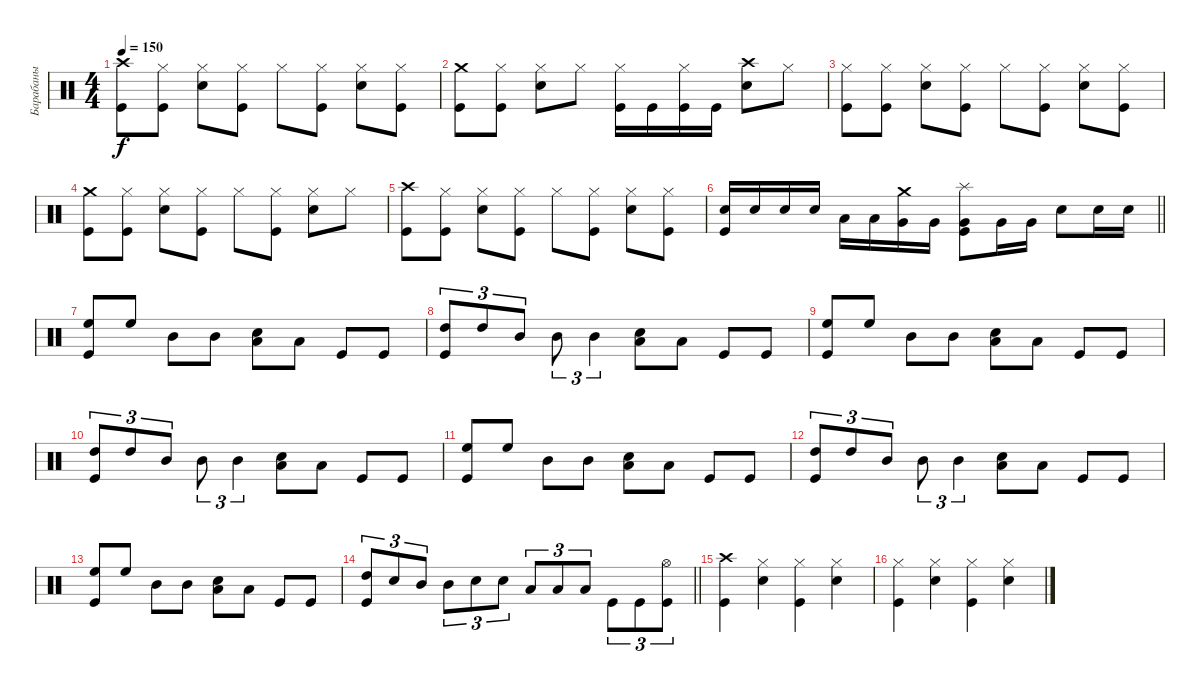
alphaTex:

\track ("Барабаны" "Барабаны") {instrument percussion}
\staff {score}
\articulation defaults
\ts (4 4)
\tempo 150
\clef neutral
\ks c
("Crash high (hit)" "Kick (hit)").8{dy f} ("Hi-Hat (closed)" "Kick (hit)").8 ("Hi-Hat (closed)" "Electric Snare (hit)").8 ("Hi-Hat (closed)" "Kick (hit)").8 "Hi-Hat (closed)".8 ("Hi-Hat (closed)" "Kick (hit)").8 ("Hi-Hat (closed)" "Electric Snare (hit)").8 ("Hi-Hat (closed)" "Kick (hit)").8 |
("Crash medium (hit)" "Kick (hit)").8 ("Hi-Hat (closed)" "Kick (hit)").8 ("Hi-Hat (closed)" "Electric Snare (hit)").8 "Hi-Hat (closed)".8 ("Hi-Hat (closed)" "Kick (hit)").16 "Kick (hit)".16 ("Hi-Hat (closed)" "Kick (hit)").16 "Kick (hit)".16 ("Crash high (hit)" "Electric Snare (hit)").8 "Hi-Hat (closed)".8 |
("Hi-Hat (closed)" "Kick (hit)").8 ("Hi-Hat (closed)" "Kick (hit)").8 ("Hi-Hat (closed)" "Electric Snare (hit)").8 ("Hi-Hat (closed)" "Kick (hit)").8 "Hi-Hat (closed)".8 ("Hi-Hat (closed)" "Kick (hit)").8 ("Hi-Hat (closed)" "Electric Snare (hit)").8 ("Hi-Hat (closed)" "Kick (hit)").8 |
("Crash medium (hit)" "Kick (hit)").8 ("Hi-Hat (closed)" "Kick (hit)").8 ("Hi-Hat (closed)" "Electric Snare (hit)").8 ("Hi-Hat (closed)" "Kick (hit)").8 "Hi-Hat (closed)".8 ("Hi-Hat (closed)" "Kick (hit)").8 ("Hi-Hat (closed)" "Electric Snare (hit)").8 "Hi-Hat (closed)".8 |
("Crash high (hit)" "Kick (hit)").8 ("Hi-Hat (closed)" "Kick (hit)").8 ("Hi-Hat (closed)" "Electric Snare (hit)").8 ("Hi-Hat (closed)" "Kick (hit)").8 "Hi-Hat (closed)".8 ("Hi-Hat (closed)" "Kick (hit)").8 ("Hi-Hat (closed)" "Electric Snare (hit)").8 ("Hi-Hat (closed)" "Kick (hit)").8 |
\barLineRight lightlight
("Electric Snare (hit)" "Kick (hit)").16 "Electric Snare (hit)".16 "Electric Snare (hit)".16 "Electric Snare (hit)".16 "Low Tom (hit)".16 "Low Tom (hit)".16 ("Crash medium (hit)" "Very Low Tom (hit)").16 "Very Low Tom (hit)".16 ("Splash (hit)" "Very Low Tom (hit)" "Kick (hit)").8 "Very Low Tom (hit)".16 "Very Low Tom (hit)".16 "Electric Snare (hit)".8 "Electric Snare (hit)".16 "Electric Snare (hit)".16 |
("High Floor Tom (hit)" "Kick (hit)").8 "High Floor Tom (hit)".8 "Mid Tom (hit)".8 "Mid Tom (hit)".8 ("Electric Snare (hit)" "Low Tom (hit)").8 "Low Tom (hit)".8 "Kick (hit)".8 "Kick (hit)".8 |
("High Tom (hit)" "Kick (hit)").8{tu (3 2)} "High Tom (hit)".8{tu (3 2)} "Mid Tom (hit)".8{tu (3 2)} "Mid Tom (hit)".8{tu (3 2)} "Mid Tom (hit)".4{tu (3 2)} ("Electric Snare (hit)" "Low Tom (hit)").8 "Low Tom (hit)".8 "Kick (hit)".8 "Kick (hit)".8 |
("High Floor Tom (hit)" "Kick (hit)").8 "High Floor Tom (hit)".8 "Mid Tom (hit)".8 "Mid Tom (hit)".8 ("Electric Snare (hit)" "Low Tom (hit)").8 "Low Tom (hit)".8 "Kick (hit)".8 "Kick (hit)".8 |
("High Tom (hit)" "Kick (hit)").8{tu (3 2)} "High Tom (hit)".8{tu (3 2)} "Mid Tom (hit)".8{tu (3 2)} "Mid Tom (hit)".8{tu (3 2)} "Mid Tom (hit)".4{tu (3 2)} ("Electric Snare (hit)" "Low Tom (hit)").8 "Low Tom (hit)".8 "Kick (hit)".8 "Kick (hit)".8 |
("High Floor Tom (hit)" "Kick (hit)").8 "High Floor Tom (hit)".8 "Mid Tom (hit)".8 "Mid Tom (hit)".8 ("Electric Snare (hit)" "Low Tom (hit)").8 "Low Tom (hit)".8 "Kick (hit)".8 "Kick (hit)".8 |
("High Tom (hit)" "Kick (hit)").8{tu (3 2)} "High Tom (hit)".8{tu (3 2)} "Mid Tom (hit)".8{tu (3 2)} "Mid Tom (hit)".8{tu (3 2)} "Mid Tom (hit)".4{tu (3 2)} ("Electric Snare (hit)" "Low Tom (hit)").8 "Low Tom (hit)".8 "Kick (hit)".8 "Kick (hit)".8 |
("High Floor Tom (hit)" "Kick (hit)").8 "High Floor Tom (hit)".8 "Mid Tom (hit)".8 "Mid Tom (hit)".8 ("Electric Snare (hit)" "Low Tom (hit)").8 "Low Tom (hit)".8 "Kick (hit)".8 "Kick (hit)".8 |
\barLineRight lightlight
("High Tom (hit)" "Kick (hit)").8{tu (3 2)} "Electric Snare (hit)".8{tu (3 2)} "Mid Tom (hit)".8{tu (3 2)} "Mid Tom (hit)".8{tu (3 2)} "Electric Snare (hit)".8{tu (3 2)} "Electric Snare (hit)".8{tu (3 2)} "Low Tom (hit)".8{tu (3 2)} "Low Tom (hit)".8{tu (3 2)} "Low Tom (hit)".8{tu (3 2)} "Kick (hit)".8{tu (3 2)} "Kick (hit)".8{tu (3 2)} ("Hi-Hat (open)" "Kick (hit)").8{tu (3 2)} |
("Crash high (hit)" "Kick (hit)").4 ("Hi-Hat (closed)" "Electric Snare (hit)").4 ("Hi-Hat (closed)" "Kick (hit)").4 ("Hi-Hat (closed)" "Electric Snare (hit)").4 |
("Hi-Hat (closed)" "Kick (hit)").4 ("Hi-Hat (closed)" "Electric Snare (hit)").4 ("Hi-Hat (closed)" "Kick (hit)").4 ("Hi-Hat (closed)" "Electric Snare (hit)").4
